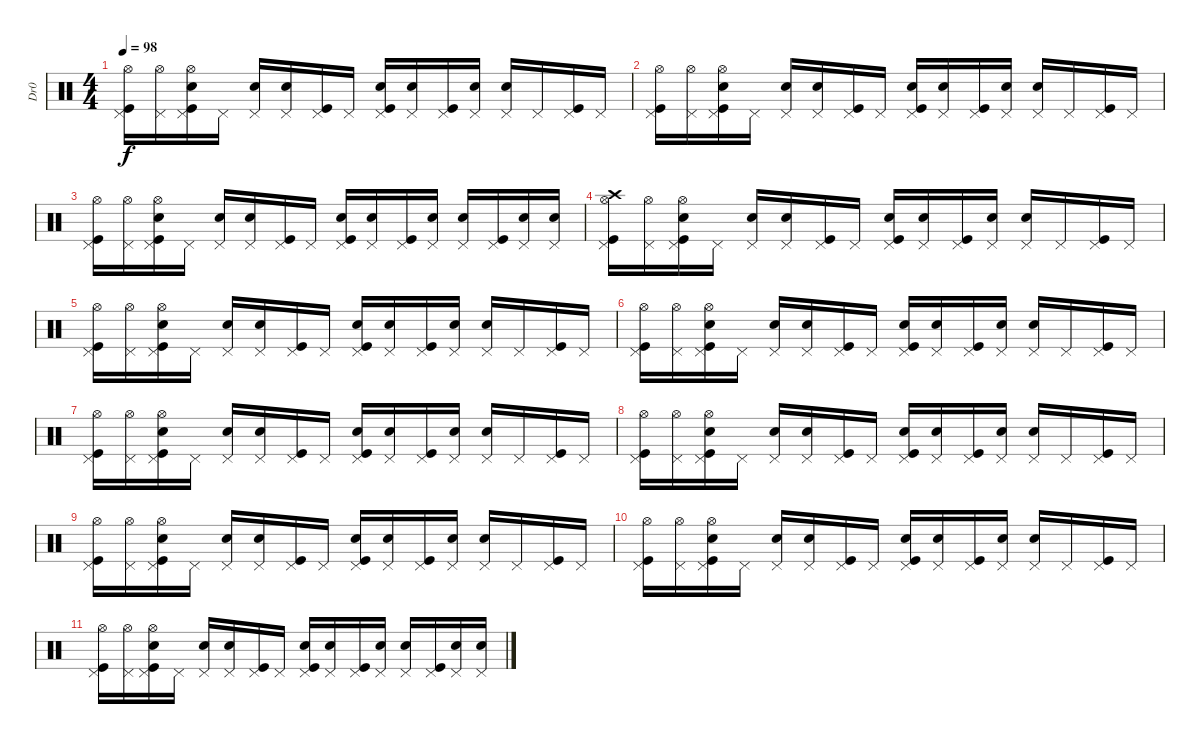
\track ("Dr0" "Dr0") {instrument percussion}
\staff {score}
\articulation defaults
\ts (4 4)
\tempo 98
\clef neutral
\ks c
("Kick (hit)" "Pedal Hi-Hat (hit)" "Hi-Hat (open)").16{dy f} ("Pedal Hi-Hat (hit)" "Hi-Hat (open)").16 ("Kick (hit)" "Pedal Hi-Hat (hit)" "Hand Clap (hit)" "Hi-Hat (open)").16 "Pedal Hi-Hat (hit)".16 ("Pedal Hi-Hat (hit)" "Snare (hit) 2").16 ("Pedal Hi-Hat (hit)" "Hand Clap (hit)").16 ("Kick (hit)" "Pedal Hi-Hat (hit)").16 "Pedal Hi-Hat (hit)".16 ("Kick (hit)" "Pedal Hi-Hat (hit)" "Hand Clap (hit)").16 ("Pedal Hi-Hat (hit)" "Snare (hit) 2").16 ("Kick (hit)" "Pedal Hi-Hat (hit)").16 ("Pedal Hi-Hat (hit)" "Hand Clap (hit)").16 ("Pedal Hi-Hat (hit)" "Snare (hit) 2").16 "Pedal Hi-Hat (hit)".16 ("Kick (hit)" "Pedal Hi-Hat (hit)").16 "Pedal Hi-Hat (hit)".16 |
("Kick (hit)" "Pedal Hi-Hat (hit)" "Hi-Hat (open)").16 ("Pedal Hi-Hat (hit)" "Hi-Hat (open)").16 ("Kick (hit)" "Pedal Hi-Hat (hit)" "Hand Clap (hit)" "Hi-Hat (open)").16 "Pedal Hi-Hat (hit)".16 ("Pedal Hi-Hat (hit)" "Snare (hit) 2").16 ("Pedal Hi-Hat (hit)" "Hand Clap (hit)").16 ("Kick (hit)" "Pedal Hi-Hat (hit)").16 "Pedal Hi-Hat (hit)".16 ("Kick (hit)" "Pedal Hi-Hat (hit)" "Hand Clap (hit)").16 ("Pedal Hi-Hat (hit)" "Snare (hit) 2").16 ("Kick (hit)" "Pedal Hi-Hat (hit)").16 ("Pedal Hi-Hat (hit)" "Hand Clap (hit)").16 ("Pedal Hi-Hat (hit)" "Snare (hit) 2").16 "Pedal Hi-Hat (hit)".16 ("Kick (hit)" "Pedal Hi-Hat (hit)").16 "Pedal Hi-Hat (hit)".16 |
("Kick (hit)" "Pedal Hi-Hat (hit)" "Hi-Hat (open)").16 ("Pedal Hi-Hat (hit)" "Hi-Hat (open)").16 ("Kick (hit)" "Pedal Hi-Hat (hit)" "Hand Clap (hit)" "Hi-Hat (open)").16 "Pedal Hi-Hat (hit)".16 ("Pedal Hi-Hat (hit)" "Snare (hit) 2").16 ("Pedal Hi-Hat (hit)" "Hand Clap (hit)").16 ("Kick (hit)" "Pedal Hi-Hat (hit)").16 "Pedal Hi-Hat (hit)".16 ("Kick (hit)" "Pedal Hi-Hat (hit)" "Hand Clap (hit)").16 ("Pedal Hi-Hat (hit)" "Snare (hit) 2").16 ("Kick (hit)" "Pedal Hi-Hat (hit)").16 ("Pedal Hi-Hat (hit)" "Hand Clap (hit)").16 ("Pedal Hi-Hat (hit)" "Snare (hit) 2").16 ("Kick (hit)" "Pedal Hi-Hat (hit)").16 ("Pedal Hi-Hat (hit)" "Snare (hit) 2").16 ("Pedal Hi-Hat (hit)" "Snare (hit) 2").16 |
("Kick (hit)" "Pedal Hi-Hat (hit)" "Crash high (hit)" "Hi-Hat (open)").16 ("Pedal Hi-Hat (hit)" "Hi-Hat (open)").16 ("Kick (hit)" "Pedal Hi-Hat (hit)" "Hand Clap (hit)" "Hi-Hat (open)").16 "Pedal Hi-Hat (hit)".16 ("Pedal Hi-Hat (hit)" "Snare (hit) 2").16 ("Pedal Hi-Hat (hit)" "Hand Clap (hit)").16 ("Kick (hit)" "Pedal Hi-Hat (hit)").16 "Pedal Hi-Hat (hit)".16 ("Kick (hit)" "Pedal Hi-Hat (hit)" "Hand Clap (hit)").16 ("Pedal Hi-Hat (hit)" "Snare (hit) 2").16 ("Kick (hit)" "Pedal Hi-Hat (hit)").16 ("Pedal Hi-Hat (hit)" "Hand Clap (hit)").16 ("Pedal Hi-Hat (hit)" "Snare (hit) 2").16 "Pedal Hi-Hat (hit)".16 ("Kick (hit)" "Pedal Hi-Hat (hit)").16 "Pedal Hi-Hat (hit)".16 |
("Kick (hit)" "Pedal Hi-Hat (hit)" "Hi-Hat (open)").16 ("Pedal Hi-Hat (hit)" "Hi-Hat (open)").16 ("Kick (hit)" "Pedal Hi-Hat (hit)" "Hand Clap (hit)" "Hi-Hat (open)").16 "Pedal Hi-Hat (hit)".16 ("Pedal Hi-Hat (hit)" "Snare (hit) 2").16 ("Pedal Hi-Hat (hit)" "Hand Clap (hit)").16 ("Kick (hit)" "Pedal Hi-Hat (hit)").16 "Pedal Hi-Hat (hit)".16 ("Kick (hit)" "Pedal Hi-Hat (hit)" "Hand Clap (hit)").16 ("Pedal Hi-Hat (hit)" "Snare (hit) 2").16 ("Kick (hit)" "Pedal Hi-Hat (hit)").16 ("Pedal Hi-Hat (hit)" "Hand Clap (hit)").16 ("Pedal Hi-Hat (hit)" "Snare (hit) 2").16 "Pedal Hi-Hat (hit)".16 ("Kick (hit)" "Pedal Hi-Hat (hit)").16 "Pedal Hi-Hat (hit)".16 |
("Kick (hit)" "Pedal Hi-Hat (hit)" "Hi-Hat (open)").16 ("Pedal Hi-Hat (hit)" "Hi-Hat (open)").16 ("Kick (hit)" "Pedal Hi-Hat (hit)" "Hand Clap (hit)" "Hi-Hat (open)").16 "Pedal Hi-Hat (hit)".16 ("Pedal Hi-Hat (hit)" "Snare (hit) 2").16 ("Pedal Hi-Hat (hit)" "Hand Clap (hit)").16 ("Kick (hit)" "Pedal Hi-Hat (hit)").16 "Pedal Hi-Hat (hit)".16 ("Kick (hit)" "Pedal Hi-Hat (hit)" "Hand Clap (hit)").16 ("Pedal Hi-Hat (hit)" "Snare (hit) 2").16 ("Kick (hit)" "Pedal Hi-Hat (hit)").16 ("Pedal Hi-Hat (hit)" "Hand Clap (hit)").16 ("Pedal Hi-Hat (hit)" "Snare (hit) 2").16 "Pedal Hi-Hat (hit)".16 ("Kick (hit)" "Pedal Hi-Hat (hit)").16 "Pedal Hi-Hat (hit)".16 |
("Kick (hit)" "Pedal Hi-Hat (hit)" "Hi-Hat (open)").16 ("Pedal Hi-Hat (hit)" "Hi-Hat (open)").16 ("Kick (hit)" "Pedal Hi-Hat (hit)" "Hand Clap (hit)" "Hi-Hat (open)").16 "Pedal Hi-Hat (hit)".16 ("Pedal Hi-Hat (hit)" "Snare (hit) 2").16 ("Pedal Hi-Hat (hit)" "Hand Clap (hit)").16 ("Kick (hit)" "Pedal Hi-Hat (hit)").16 "Pedal Hi-Hat (hit)".16 ("Kick (hit)" "Pedal Hi-Hat (hit)" "Hand Clap (hit)").16 ("Pedal Hi-Hat (hit)" "Snare (hit) 2").16 ("Kick (hit)" "Pedal Hi-Hat (hit)").16 ("Pedal Hi-Hat (hit)" "Hand Clap (hit)").16 ("Pedal Hi-Hat (hit)" "Snare (hit) 2").16 "Pedal Hi-Hat (hit)".16 ("Kick (hit)" "Pedal Hi-Hat (hit)").16 "Pedal Hi-Hat (hit)".16 |
("Kick (hit)" "Pedal Hi-Hat (hit)" "Hi-Hat (open)").16 ("Pedal Hi-Hat (hit)" "Hi-Hat (open)").16 ("Kick (hit)" "Pedal Hi-Hat (hit)" "Hand Clap (hit)" "Hi-Hat (open)").16 "Pedal Hi-Hat (hit)".16 ("Pedal Hi-Hat (hit)" "Snare (hit) 2").16 ("Pedal Hi-Hat (hit)" "Hand Clap (hit)").16 ("Kick (hit)" "Pedal Hi-Hat (hit)").16 "Pedal Hi-Hat (hit)".16 ("Kick (hit)" "Pedal Hi-Hat (hit)" "Hand Clap (hit)").16 ("Pedal Hi-Hat (hit)" "Snare (hit) 2").16 ("Kick (hit)" "Pedal Hi-Hat (hit)").16 ("Pedal Hi-Hat (hit)" "Hand Clap (hit)").16 ("Pedal Hi-Hat (hit)" "Snare (hit) 2").16 "Pedal Hi-Hat (hit)".16 ("Kick (hit)" "Pedal Hi-Hat (hit)").16 "Pedal Hi-Hat (hit)".16 |
("Kick (hit)" "Pedal Hi-Hat (hit)" "Hi-Hat (open)").16 ("Pedal Hi-Hat (hit)" "Hi-Hat (open)").16 ("Kick (hit)" "Pedal Hi-Hat (hit)" "Hand Clap (hit)" "Hi-Hat (open)").16 "Pedal Hi-Hat (hit)".16 ("Pedal Hi-Hat (hit)" "Snare (hit) 2").16 ("Pedal Hi-Hat (hit)" "Hand Clap (hit)").16 ("Kick (hit)" "Pedal Hi-Hat (hit)").16 "Pedal Hi-Hat (hit)".16 ("Kick (hit)" "Pedal Hi-Hat (hit)" "Hand Clap (hit)").16 ("Pedal Hi-Hat (hit)" "Snare (hit) 2").16 ("Kick (hit)" "Pedal Hi-Hat (hit)").16 ("Pedal Hi-Hat (hit)" "Hand Clap (hit)").16 ("Pedal Hi-Hat (hit)" "Snare (hit) 2").16 "Pedal Hi-Hat (hit)".16 ("Kick (hit)" "Pedal Hi-Hat (hit)").16 "Pedal Hi-Hat (hit)".16 |
("Kick (hit)" "Pedal Hi-Hat (hit)" "Hi-Hat (open)").16 ("Pedal Hi-Hat (hit)" "Hi-Hat (open)").16 ("Kick (hit)" "Pedal Hi-Hat (hit)" "Hand Clap (hit)" "Hi-Hat (open)").16 "Pedal Hi-Hat (hit)".16 ("Pedal Hi-Hat (hit)" "Snare (hit) 2").16 ("Pedal Hi-Hat (hit)" "Hand Clap (hit)").16 ("Kick (hit)" "Pedal Hi-Hat (hit)").16 "Pedal Hi-Hat (hit)".16 ("Kick (hit)" "Pedal Hi-Hat (hit)" "Hand Clap (hit)").16 ("Pedal Hi-Hat (hit)" "Snare (hit) 2").16 ("Kick (hit)" "Pedal Hi-Hat (hit)").16 ("Pedal Hi-Hat (hit)" "Hand Clap (hit)").16 ("Pedal Hi-Hat (hit)" "Snare (hit) 2").16 "Pedal Hi-Hat (hit)".16 ("Kick (hit)" "Pedal Hi-Hat (hit)").16 "Pedal Hi-Hat (hit)".16 |
("Kick (hit)" "Pedal Hi-Hat (hit)" "Hi-Hat (open)").16 ("Pedal Hi-Hat (hit)" "Hi-Hat (open)").16 ("Kick (hit)" "Pedal Hi-Hat (hit)" "Hand Clap (hit)" "Hi-Hat (open)").16 "Pedal Hi-Hat (hit)".16 ("Pedal Hi-Hat (hit)" "Snare (hit) 2").16 ("Pedal Hi-Hat (hit)" "Hand Clap (hit)").16 ("Kick (hit)" "Pedal Hi-Hat (hit)").16 "Pedal Hi-Hat (hit)".16 ("Kick (hit)" "Pedal Hi-Hat (hit)" "Hand Clap (hit)").16 ("Pedal Hi-Hat (hit)" "Snare (hit) 2").16 ("Kick (hit)" "Pedal Hi-Hat (hit)").16 ("Pedal Hi-Hat (hit)" "Hand Clap (hit)").16 ("Pedal Hi-Hat (hit)" "Snare (hit) 2").16 ("Kick (hit)" "Pedal Hi-Hat (hit)").16 ("Pedal Hi-Hat (hit)" "Snare (hit) 2").16 ("Pedal Hi-Hat (hit)" "Snare (hit) 2").16
